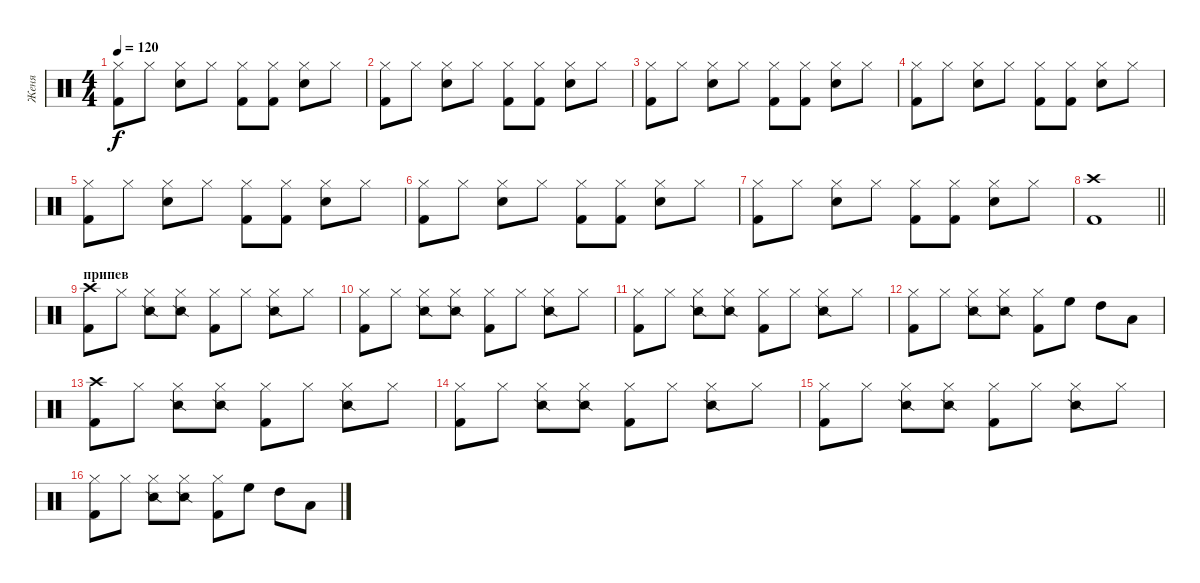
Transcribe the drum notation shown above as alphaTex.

\track ("Женя" "Женя") {instrument percussion}
\staff {score}
\articulation defaults
\ts (4 4)
\tempo 120
\clef neutral
\ks c
("Hi-Hat (closed)" "Kick (hit) 2").8{dy f} "Hi-Hat (closed)".8 ("Hi-Hat (closed)" "Snare (hit) 2").8 "Hi-Hat (closed)".8 ("Hi-Hat (closed)" "Kick (hit) 2").8 ("Hi-Hat (closed)" "Kick (hit) 2").8 ("Hi-Hat (closed)" "Snare (hit) 2").8 "Hi-Hat (closed)".8 |
("Hi-Hat (closed)" "Kick (hit) 2").8 "Hi-Hat (closed)".8 ("Hi-Hat (closed)" "Snare (hit) 2").8 "Hi-Hat (closed)".8 ("Hi-Hat (closed)" "Kick (hit) 2").8 ("Hi-Hat (closed)" "Kick (hit) 2").8 ("Hi-Hat (closed)" "Snare (hit) 2").8 "Hi-Hat (closed)".8 |
("Hi-Hat (closed)" "Kick (hit) 2").8 "Hi-Hat (closed)".8 ("Hi-Hat (closed)" "Snare (hit) 2").8 "Hi-Hat (closed)".8 ("Hi-Hat (closed)" "Kick (hit) 2").8 ("Hi-Hat (closed)" "Kick (hit) 2").8 ("Hi-Hat (closed)" "Snare (hit) 2").8 "Hi-Hat (closed)".8 |
("Hi-Hat (closed)" "Kick (hit) 2").8 "Hi-Hat (closed)".8 ("Hi-Hat (closed)" "Snare (hit) 2").8 "Hi-Hat (closed)".8 ("Hi-Hat (closed)" "Kick (hit) 2").8 ("Hi-Hat (closed)" "Kick (hit) 2").8 ("Hi-Hat (closed)" "Snare (hit) 2").8 "Hi-Hat (closed)".8 |
("Hi-Hat (closed)" "Kick (hit) 2").8 "Hi-Hat (closed)".8 ("Hi-Hat (closed)" "Snare (hit) 2").8 "Hi-Hat (closed)".8 ("Hi-Hat (closed)" "Kick (hit) 2").8 ("Hi-Hat (closed)" "Kick (hit) 2").8 ("Hi-Hat (closed)" "Snare (hit) 2").8 "Hi-Hat (closed)".8 |
("Hi-Hat (closed)" "Kick (hit) 2").8 "Hi-Hat (closed)".8 ("Hi-Hat (closed)" "Snare (hit) 2").8 "Hi-Hat (closed)".8 ("Hi-Hat (closed)" "Kick (hit) 2").8 ("Hi-Hat (closed)" "Kick (hit) 2").8 ("Hi-Hat (closed)" "Snare (hit) 2").8 "Hi-Hat (closed)".8 |
("Hi-Hat (closed)" "Kick (hit) 2").8 "Hi-Hat (closed)".8 ("Hi-Hat (closed)" "Snare (hit) 2").8 "Hi-Hat (closed)".8 ("Hi-Hat (closed)" "Kick (hit) 2").8 ("Hi-Hat (closed)" "Kick (hit) 2").8 ("Hi-Hat (closed)" "Snare (hit) 2").8 "Hi-Hat (closed)".8 |
\barLineRight lightlight
("Crash high (hit)" "Kick (hit) 2").1 |
\section ("" "припев")
("Crash high (hit)" "Kick (hit) 2").8 "Hi-Hat (closed)".8 ("Hi-Hat (closed)" "Snare (side stick) 2").8 ("Hi-Hat (closed)" "Snare (side stick) 2").8 ("Hi-Hat (closed)" "Kick (hit) 2").8 "Hi-Hat (closed)".8 ("Hi-Hat (closed)" "Snare (side stick) 2").8 "Hi-Hat (closed)".8 |
("Hi-Hat (closed)" "Kick (hit) 2").8 "Hi-Hat (closed)".8 ("Hi-Hat (closed)" "Snare (side stick) 2").8 ("Hi-Hat (closed)" "Snare (side stick) 2").8 ("Hi-Hat (closed)" "Kick (hit) 2").8 "Hi-Hat (closed)".8 ("Hi-Hat (closed)" "Snare (side stick) 2").8 "Hi-Hat (closed)".8 |
("Hi-Hat (closed)" "Kick (hit) 2").8 "Hi-Hat (closed)".8 ("Hi-Hat (closed)" "Snare (side stick) 2").8 ("Hi-Hat (closed)" "Snare (side stick) 2").8 ("Hi-Hat (closed)" "Kick (hit) 2").8 "Hi-Hat (closed)".8 ("Hi-Hat (closed)" "Snare (side stick) 2").8 "Hi-Hat (closed)".8 |
("Hi-Hat (closed)" "Kick (hit) 2").8 "Hi-Hat (closed)".8 ("Hi-Hat (closed)" "Snare (side stick) 2").8 ("Hi-Hat (closed)" "Snare (side stick) 2").8 ("Hi-Hat (closed)" "Kick (hit) 2").8 "High Floor Tom (hit)".8 "High Tom (hit)".8 "Low Tom (hit)".8 |
("Crash high (hit)" "Kick (hit) 2").8 "Hi-Hat (closed)".8 ("Hi-Hat (closed)" "Snare (side stick) 2").8 ("Hi-Hat (closed)" "Snare (side stick) 2").8 ("Hi-Hat (closed)" "Kick (hit) 2").8 "Hi-Hat (closed)".8 ("Hi-Hat (closed)" "Snare (side stick) 2").8 "Hi-Hat (closed)".8 |
("Hi-Hat (closed)" "Kick (hit) 2").8 "Hi-Hat (closed)".8 ("Hi-Hat (closed)" "Snare (side stick) 2").8 ("Hi-Hat (closed)" "Snare (side stick) 2").8 ("Hi-Hat (closed)" "Kick (hit) 2").8 "Hi-Hat (closed)".8 ("Hi-Hat (closed)" "Snare (side stick) 2").8 "Hi-Hat (closed)".8 |
("Hi-Hat (closed)" "Kick (hit) 2").8 "Hi-Hat (closed)".8 ("Hi-Hat (closed)" "Snare (side stick) 2").8 ("Hi-Hat (closed)" "Snare (side stick) 2").8 ("Hi-Hat (closed)" "Kick (hit) 2").8 "Hi-Hat (closed)".8 ("Hi-Hat (closed)" "Snare (side stick) 2").8 "Hi-Hat (closed)".8 |
("Hi-Hat (closed)" "Kick (hit) 2").8 "Hi-Hat (closed)".8 ("Hi-Hat (closed)" "Snare (side stick) 2").8 ("Hi-Hat (closed)" "Snare (side stick) 2").8 ("Hi-Hat (closed)" "Kick (hit) 2").8 "High Floor Tom (hit)".8 "High Tom (hit)".8 "Low Tom (hit)".8
